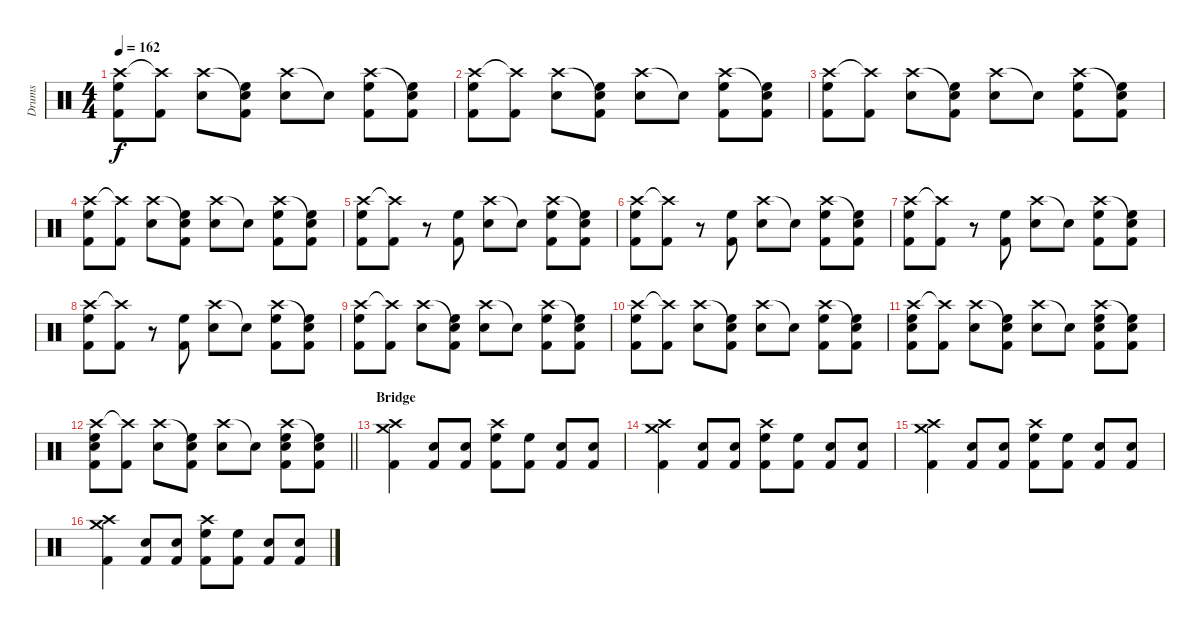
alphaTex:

\track ("Drums" "Drums") {instrument percussion}
\staff {score}
\articulation defaults
\ts (4 4)
\tempo 162
\clef neutral
\ks c
("Crash high (hit)" "High Floor Tom (hit)" "Kick (hit) 2").8{dy f} ("Crash high (hit)"{t} "Kick (hit) 2").8 ("Crash high (hit)" "Snare (hit) 2").8 ("Snare (hit)"{t} "High Floor Tom (hit)" "Kick (hit) 2").8 ("Crash high (hit)" "Snare (hit) 2").8 "Snare (hit)"{t}.8 ("Crash high (hit)" "High Floor Tom (hit)" "Kick (hit) 2").8 ("Snare (hit)"{t} "High Floor Tom (hit)" "Kick (hit) 2").8 |
("Crash high (hit)" "High Floor Tom (hit)" "Kick (hit) 2").8 ("Crash high (hit)"{t} "Kick (hit) 2").8 ("Crash high (hit)" "Snare (hit) 2").8 ("Snare (hit)"{t} "High Floor Tom (hit)" "Kick (hit) 2").8 ("Crash high (hit)" "Snare (hit) 2").8 "Snare (hit)"{t}.8 ("Crash high (hit)" "High Floor Tom (hit)" "Kick (hit) 2").8 ("Snare (hit)"{t} "High Floor Tom (hit)" "Kick (hit) 2").8 |
("Crash high (hit)" "High Floor Tom (hit)" "Kick (hit) 2").8 ("Crash high (hit)"{t} "Kick (hit) 2").8 ("Crash high (hit)" "Snare (hit) 2").8 ("Snare (hit)"{t} "High Floor Tom (hit)" "Kick (hit) 2").8 ("Crash high (hit)" "Snare (hit) 2").8 "Snare (hit)"{t}.8 ("Crash high (hit)" "High Floor Tom (hit)" "Kick (hit) 2").8 ("Snare (hit)"{t} "High Floor Tom (hit)" "Kick (hit) 2").8 |
("Crash high (hit)" "High Floor Tom (hit)" "Kick (hit) 2").8 ("Crash high (hit)"{t} "Kick (hit) 2").8 ("Crash high (hit)" "Snare (hit) 2").8 ("Snare (hit)"{t} "High Floor Tom (hit)" "Kick (hit) 2").8 ("Crash high (hit)" "Snare (hit) 2").8 "Snare (hit)"{t}.8 ("Crash high (hit)" "High Floor Tom (hit)" "Kick (hit) 2").8 ("Snare (hit)"{t} "High Floor Tom (hit)" "Kick (hit) 2").8 |
("Crash high (hit)" "High Floor Tom (hit)" "Kick (hit) 2").8 ("Crash high (hit)"{t} "Kick (hit) 2").8 r.8 ("High Floor Tom (hit)" "Kick (hit) 2").8 ("Crash high (hit)" "Snare (hit) 2").8 "Snare (hit)"{t}.8 ("Crash high (hit)" "High Floor Tom (hit)" "Kick (hit) 2").8 ("Snare (hit)"{t} "High Floor Tom (hit)" "Kick (hit) 2").8 |
("Crash high (hit)" "High Floor Tom (hit)" "Kick (hit) 2").8 ("Crash high (hit)"{t} "Kick (hit) 2").8 r.8 ("High Floor Tom (hit)" "Kick (hit) 2").8 ("Crash high (hit)" "Snare (hit) 2").8 "Snare (hit)"{t}.8 ("Crash high (hit)" "High Floor Tom (hit)" "Kick (hit) 2").8 ("Snare (hit)"{t} "High Floor Tom (hit)" "Kick (hit) 2").8 |
("Crash high (hit)" "High Floor Tom (hit)" "Kick (hit) 2").8 ("Crash high (hit)"{t} "Kick (hit) 2").8 r.8 ("High Floor Tom (hit)" "Kick (hit) 2").8 ("Crash high (hit)" "Snare (hit) 2").8 "Snare (hit)"{t}.8 ("Crash high (hit)" "High Floor Tom (hit)" "Kick (hit) 2").8 ("Snare (hit)"{t} "High Floor Tom (hit)" "Kick (hit) 2").8 |
("Crash high (hit)" "High Floor Tom (hit)" "Kick (hit) 2").8 ("Crash high (hit)"{t} "Kick (hit) 2").8 r.8 ("High Floor Tom (hit)" "Kick (hit) 2").8 ("Crash high (hit)" "Snare (hit) 2").8 "Snare (hit)"{t}.8 ("Crash high (hit)" "High Floor Tom (hit)" "Kick (hit) 2").8 ("Snare (hit)"{t} "High Floor Tom (hit)" "Kick (hit) 2").8 |
("Crash high (hit)" "High Floor Tom (hit)" "Kick (hit) 2").8 ("Crash high (hit)"{t} "Kick (hit) 2").8 ("Crash high (hit)" "Snare (hit) 2").8 ("Snare (hit)"{t} "High Floor Tom (hit)" "Kick (hit) 2").8 ("Crash high (hit)" "Snare (hit) 2").8 "Snare (hit)"{t}.8 ("Crash high (hit)" "High Floor Tom (hit)" "Kick (hit) 2").8 ("Snare (hit)"{t} "High Floor Tom (hit)" "Kick (hit) 2").8 |
("Crash high (hit)" "High Floor Tom (hit)" "Kick (hit) 2").8 ("Crash high (hit)"{t} "Kick (hit) 2").8 ("Crash high (hit)" "Snare (hit) 2").8 ("Snare (hit)"{t} "High Floor Tom (hit)" "Kick (hit) 2").8 ("Crash high (hit)" "Snare (hit) 2").8 "Snare (hit)"{t}.8 ("Crash high (hit)" "High Floor Tom (hit)" "Kick (hit) 2").8 ("Snare (hit)"{t} "High Floor Tom (hit)" "Kick (hit) 2").8 |
("Crash high (hit)" "Snare (hit) 2" "High Floor Tom (hit)" "Kick (hit) 2").8 ("Crash high (hit)"{t} "Kick (hit) 2").8 ("Crash high (hit)" "Snare (hit) 2").8 ("Snare (hit)"{t} "High Floor Tom (hit)" "Kick (hit) 2").8 ("Crash high (hit)" "Snare (hit) 2").8 "Snare (hit)"{t}.8 ("Crash high (hit)" "Snare (hit) 2" "High Floor Tom (hit)" "Kick (hit) 2").8 ("Snare (hit)"{t} "High Floor Tom (hit)" "Kick (hit) 2").8 |
\barLineRight lightlight
("Crash high (hit)" "Snare (hit) 2" "High Floor Tom (hit)" "Kick (hit) 2").8 ("Crash high (hit)"{t} "Kick (hit) 2").8 ("Crash high (hit)" "Snare (hit) 2").8 ("Snare (hit)"{t} "High Floor Tom (hit)" "Kick (hit) 2").8 ("Crash high (hit)" "Snare (hit) 2").8 "Snare (hit)"{t}.8 ("Crash high (hit)" "Snare (hit) 2" "High Floor Tom (hit)" "Kick (hit) 2").8 ("Snare (hit)"{t} "High Floor Tom (hit)" "Kick (hit) 2").8 |
\section ("" "Bridge")
("Crash high (hit)" "Crash medium (hit)" "Kick (hit) 2").4 ("Snare (hit) 2" "Kick (hit) 2").8 ("Snare (hit) 2" "Kick (hit) 2").8 ("Crash high (hit)" "High Floor Tom (hit)" "Kick (hit) 2").8 ("High Floor Tom (hit)" "Kick (hit) 2").8 ("Snare (hit) 2" "Kick (hit) 2").8 ("Snare (hit) 2" "Kick (hit) 2").8 |
("Crash high (hit)" "Crash medium (hit)" "Kick (hit) 2").4 ("Snare (hit) 2" "Kick (hit) 2").8 ("Snare (hit) 2" "Kick (hit) 2").8 ("Crash high (hit)" "High Floor Tom (hit)" "Kick (hit) 2").8 ("High Floor Tom (hit)" "Kick (hit) 2").8 ("Snare (hit) 2" "Kick (hit) 2").8 ("Snare (hit) 2" "Kick (hit) 2").8 |
("Crash high (hit)" "Crash medium (hit)" "Kick (hit) 2").4 ("Snare (hit) 2" "Kick (hit) 2").8 ("Snare (hit) 2" "Kick (hit) 2").8 ("Crash high (hit)" "High Floor Tom (hit)" "Kick (hit) 2").8 ("High Floor Tom (hit)" "Kick (hit) 2").8 ("Snare (hit) 2" "Kick (hit) 2").8 ("Snare (hit) 2" "Kick (hit) 2").8 |
("Crash high (hit)" "Crash medium (hit)" "Kick (hit) 2").4 ("Snare (hit) 2" "Kick (hit) 2").8 ("Snare (hit) 2" "Kick (hit) 2").8 ("Crash high (hit)" "High Floor Tom (hit)" "Kick (hit) 2").8 ("High Floor Tom (hit)" "Kick (hit) 2").8 ("Snare (hit) 2" "Kick (hit) 2").8 ("Snare (hit) 2" "Kick (hit) 2").8
